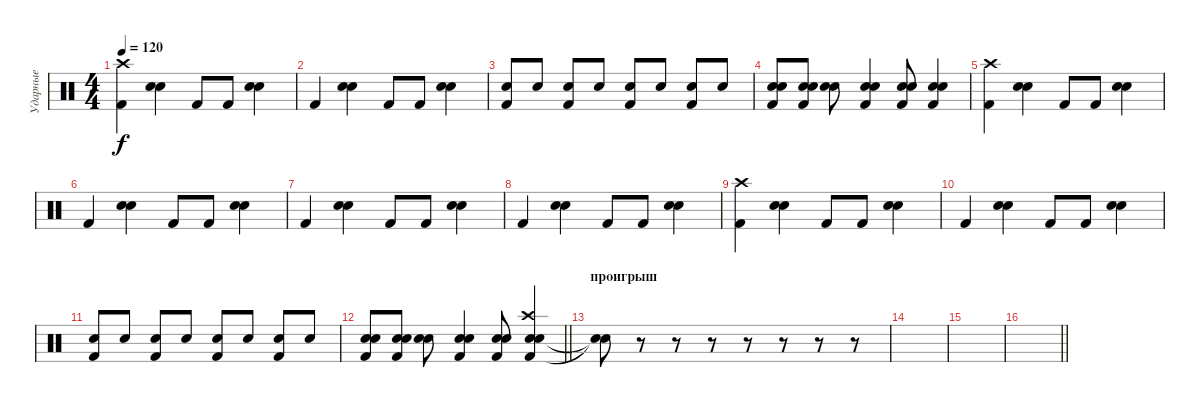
\track ("Ударные" "Ударные") {instrument percussion}
\staff {score}
\articulation defaults
\ts (4 4)
\tempo 120
\clef neutral
\ks c
("Kick (hit) 2" "Crash high (hit)").4{dy f} ("Snare (hit) 2" "Electric Snare (hit)").4 "Kick (hit) 2".8 "Kick (hit) 2".8 ("Snare (hit) 2" "Electric Snare (hit)").4 |
"Kick (hit) 2".4 ("Snare (hit) 2" "Electric Snare (hit)").4 "Kick (hit) 2".8 "Kick (hit) 2".8 ("Snare (hit) 2" "Electric Snare (hit)").4 |
("Snare (hit) 2" "Kick (hit) 2").8 "Electric Snare (hit)".8 ("Snare (hit) 2" "Kick (hit) 2").8 "Electric Snare (hit)".8 ("Snare (hit) 2" "Kick (hit) 2").8 "Electric Snare (hit)".8 ("Snare (hit) 2" "Kick (hit) 2").8 "Electric Snare (hit)".8 |
("Kick (hit) 2" "Snare (hit) 2" "Electric Snare (hit)").8 ("Kick (hit) 2" "Snare (hit) 2" "Electric Snare (hit)").8 ("Snare (hit) 2" "Electric Snare (hit)").8 ("Kick (hit) 2" "Snare (hit) 2" "Electric Snare (hit)").4 ("Kick (hit) 2" "Snare (hit) 2" "Electric Snare (hit)").8 ("Kick (hit) 2" "Snare (hit) 2" "Electric Snare (hit)").4 |
("Kick (hit) 2" "Crash high (hit)").4 ("Snare (hit) 2" "Electric Snare (hit)").4 "Kick (hit) 2".8 "Kick (hit) 2".8 ("Snare (hit) 2" "Electric Snare (hit)").4 |
"Kick (hit) 2".4 ("Snare (hit) 2" "Electric Snare (hit)").4 "Kick (hit) 2".8 "Kick (hit) 2".8 ("Snare (hit) 2" "Electric Snare (hit)").4 |
"Kick (hit) 2".4 ("Snare (hit) 2" "Electric Snare (hit)").4 "Kick (hit) 2".8 "Kick (hit) 2".8 ("Snare (hit) 2" "Electric Snare (hit)").4 |
"Kick (hit) 2".4 ("Snare (hit) 2" "Electric Snare (hit)").4 "Kick (hit) 2".8 "Kick (hit) 2".8 ("Snare (hit) 2" "Electric Snare (hit)").4 |
("Kick (hit) 2" "Crash high (hit)").4 ("Snare (hit) 2" "Electric Snare (hit)").4 "Kick (hit) 2".8 "Kick (hit) 2".8 ("Snare (hit) 2" "Electric Snare (hit)").4 |
"Kick (hit) 2".4 ("Snare (hit) 2" "Electric Snare (hit)").4 "Kick (hit) 2".8 "Kick (hit) 2".8 ("Snare (hit) 2" "Electric Snare (hit)").4 |
("Snare (hit) 2" "Kick (hit) 2").8 "Electric Snare (hit)".8 ("Snare (hit) 2" "Kick (hit) 2").8 "Electric Snare (hit)".8 ("Snare (hit) 2" "Kick (hit) 2").8 "Electric Snare (hit)".8 ("Snare (hit) 2" "Kick (hit) 2").8 "Electric Snare (hit)".8 |
\barLineRight lightlight
("Kick (hit) 2" "Snare (hit) 2" "Electric Snare (hit)").8 ("Kick (hit) 2" "Snare (hit) 2" "Electric Snare (hit)").8 ("Snare (hit) 2" "Electric Snare (hit)").8 ("Kick (hit) 2" "Snare (hit) 2" "Electric Snare (hit)").4 ("Kick (hit) 2" "Snare (hit) 2" "Electric Snare (hit)").8 ("Kick (hit) 2" "Snare (hit) 2" "Electric Snare (hit)" "Crash high (hit)").4 |
\section ("" "проигрыш")
("Snare (hit)"{t} "Snare (hit)"{t}).8 r.8 r.8 r.8 r.8 r.8 r.8 r.8 |
|
|
\barLineRight lightlight
